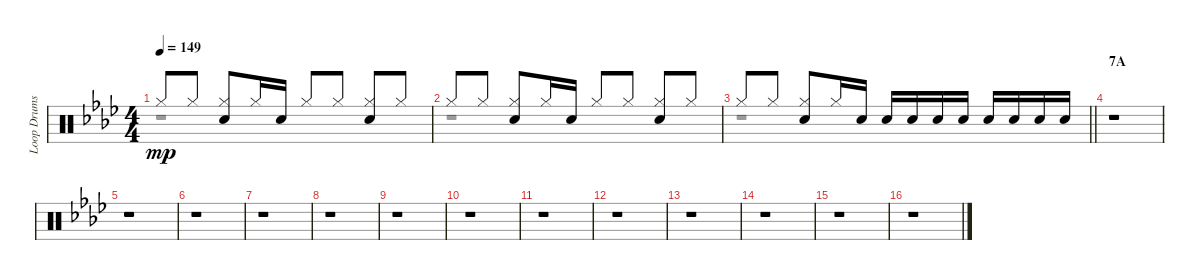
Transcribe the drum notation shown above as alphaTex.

\track ("Loop Drums" "Loop Drums") {instrument percussion}
\staff {score}
\articulation defaults
\voice
\ts (4 4)
\tempo 149
\clef neutral
\ks ab "Hi-Hat (closed)".8{dy mp} "Hi-Hat (closed)".8
("Hi-Hat (closed)" "Electric Snare (hit)").8 "Hi-Hat (closed)".16 "Electric Snare (hit)".16 "Hi-Hat (closed)".8 "Hi-Hat (closed)".8 ("Hi-Hat (closed)" "Electric Snare (hit)").8 "Hi-Hat (closed)".8 |
"Hi-Hat (closed)".8 "Hi-Hat (closed)".8 ("Hi-Hat (closed)" "Electric Snare (hit)").8 "Hi-Hat (closed)".16 "Electric Snare (hit)".16 "Hi-Hat (closed)".8 "Hi-Hat (closed)".8 ("Hi-Hat (closed)" "Electric Snare (hit)").8 "Hi-Hat (closed)".8 |
\barLineRight lightlight "Hi-Hat (closed)".8 "Hi-Hat (closed)".8
("Hi-Hat (closed)" "Electric Snare (hit)").8 "Hi-Hat (closed)".16 "Electric Snare (hit)".16 "Electric Snare (hit)".16 "Electric Snare (hit)".16 "Electric Snare (hit)".16 "Electric Snare (hit)".16 "Electric Snare (hit)".16 "Electric Snare (hit)".16 "Electric Snare (hit)".16 "Electric Snare (hit)".16 |
\section ("" "7A")
r.1 |
r.1 |
r.1 |
r.1 |
r.1 |
r.1 |
r.1 |
r.1 |
r.1 |
r.1 |
r.1 |
r.1 |
r.1
\voice
\clef neutral
\ottava regular
\simile none
\ks ab
r.1{dy f} |
r.1 |
\barLineRight lightlight
r.1 |
r.1 |
r.1 |
r.1 |
r.1 |
r.1 |
r.1 |
r.1 |
r.1 |
r.1 |
r.1 |
r.1 |
r.1 |
r.1
